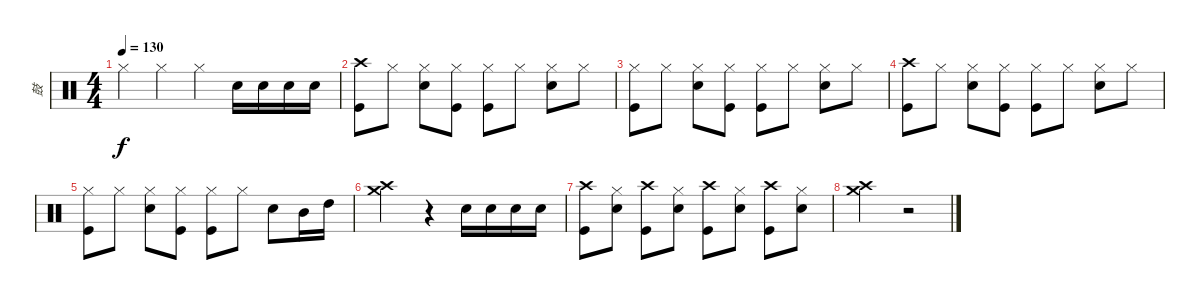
\track ("鼓" "鼓") {instrument percussion}
\staff {score}
\articulation defaults
\ts (4 4)
\tempo 130
\clef neutral
\ks c "Hi-Hat (closed)".4{dy f} "Hi-Hat (closed)".4 "Hi-Hat (closed)".4 "Snare (hit) 2".16 "Snare (hit) 2".16 "Snare (hit) 2".16 "Snare (hit) 2".16
|
("Crash high (hit)" "Kick (hit)").8 "Hi-Hat (closed)".8 ("Hi-Hat (closed)" "Snare (hit) 2").8 ("Hi-Hat (closed)" "Kick (hit)").8 ("Hi-Hat (closed)" "Kick (hit)").8 "Hi-Hat (closed)".8 ("Hi-Hat (closed)" "Snare (hit) 2").8 "Hi-Hat (closed)".8 |
("Hi-Hat (closed)" "Kick (hit)").8 "Hi-Hat (closed)".8 ("Hi-Hat (closed)" "Snare (hit) 2").8 ("Hi-Hat (closed)" "Kick (hit)").8 ("Hi-Hat (closed)" "Kick (hit)").8 "Hi-Hat (closed)".8 ("Hi-Hat (closed)" "Snare (hit) 2").8 "Hi-Hat (closed)".8 |
("Crash high (hit)" "Kick (hit)").8 "Hi-Hat (closed)".8 ("Hi-Hat (closed)" "Snare (hit) 2").8 ("Hi-Hat (closed)" "Kick (hit)").8 ("Hi-Hat (closed)" "Kick (hit)").8 "Hi-Hat (closed)".8 ("Hi-Hat (closed)" "Snare (hit) 2").8 "Hi-Hat (closed)".8 |
("Hi-Hat (closed)" "Kick (hit)").8 "Hi-Hat (closed)".8 ("Hi-Hat (closed)" "Snare (hit) 2").8 ("Hi-Hat (closed)" "Kick (hit)").8 ("Hi-Hat (closed)" "Kick (hit)").8 "Hi-Hat (closed)".8 "Snare (hit) 2".8 "Mid Tom (hit)".16 "High Tom (hit)".16 |
("Crash high (hit)" "Crash medium (hit)").2 r.4 "Snare (hit) 2".16 "Snare (hit) 2".16 "Snare (hit) 2".16 "Snare (hit) 2".16 |
("Crash high (hit)" "Kick (hit)").8 ("Hi-Hat (closed)" "Snare (hit) 2").8 ("Crash high (hit)" "Kick (hit)").8 ("Hi-Hat (closed)" "Snare (hit) 2").8 ("Crash high (hit)" "Kick (hit)").8 ("Hi-Hat (closed)" "Snare (hit) 2").8 ("Crash high (hit)" "Kick (hit)").8 ("Hi-Hat (closed)" "Snare (hit) 2").8 |
("Crash high (hit)" "Crash medium (hit)").2 r.2
